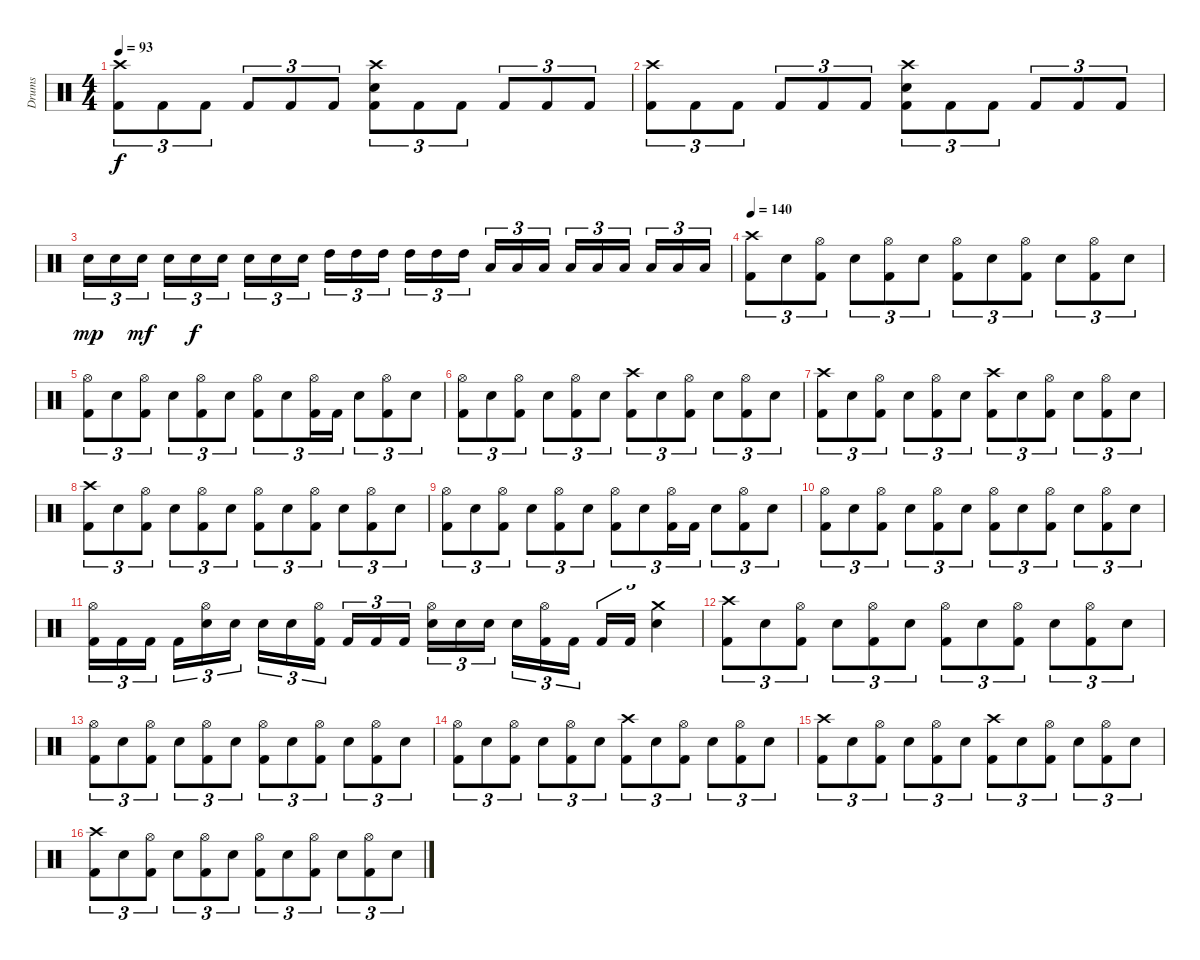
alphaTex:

\track ("Drums" "Drums") {instrument percussion}
\staff {score}
\articulation defaults
\ts (4 4)
\tempo 93
\clef neutral
\ks c
("Crash high (hit)" "Kick (hit) 2").8{tu (3 2) dy f} "Kick (hit) 2".8{tu (3 2)} "Kick (hit) 2".8{tu (3 2)} "Kick (hit) 2".8{tu (3 2)} "Kick (hit) 2".8{tu (3 2)} "Kick (hit) 2".8{tu (3 2)} ("Crash high (hit)" "Electric Snare (hit)" "Kick (hit) 2").8{tu (3 2)} "Kick (hit) 2".8{tu (3 2)} "Kick (hit) 2".8{tu (3 2)} "Kick (hit) 2".8{tu (3 2)} "Kick (hit) 2".8{tu (3 2)} "Kick (hit) 2".8{tu (3 2)} |
("Crash high (hit)" "Kick (hit) 2").8{tu (3 2)} "Kick (hit) 2".8{tu (3 2)} "Kick (hit) 2".8{tu (3 2)} "Kick (hit) 2".8{tu (3 2)} "Kick (hit) 2".8{tu (3 2)} "Kick (hit) 2".8{tu (3 2)} ("Crash high (hit)" "Electric Snare (hit)" "Kick (hit) 2").8{tu (3 2)} "Kick (hit) 2".8{tu (3 2)} "Kick (hit) 2".8{tu (3 2)} "Kick (hit) 2".8{tu (3 2)} "Kick (hit) 2".8{tu (3 2)} "Kick (hit) 2".8{tu (3 2)} |
"Electric Snare (hit)".16{tu (3 2) dy mp} "Electric Snare (hit)".16{tu (3 2)} "Electric Snare (hit)".16{tu (3 2) dy mf} "Electric Snare (hit)".16{tu (3 2)} "Electric Snare (hit)".16{tu (3 2) dy f} "Electric Snare (hit)".16{tu (3 2)} "Electric Snare (hit)".16{tu (3 2)} "Electric Snare (hit)".16{tu (3 2)} "Electric Snare (hit)".16{tu (3 2)} "High Tom (hit)".16{tu (3 2)} "High Tom (hit)".16{tu (3 2)} "High Tom (hit)".16{tu (3 2)} "High Tom (hit)".16{tu (3 2)} "High Tom (hit)".16{tu (3 2)} "High Tom (hit)".16{tu (3 2)} "Low Tom (hit)".16{tu (3 2)} "Low Tom (hit)".16{tu (3 2)} "Low Tom (hit)".16{tu (3 2)} "Low Tom (hit)".16{tu (3 2)} "Low Tom (hit)".16{tu (3 2)} "Low Tom (hit)".16{tu (3 2)} "Low Floor Tom (hit)".16{tu (3 2)} "Low Floor Tom (hit)".16{tu (3 2)} "Low Floor Tom (hit)".16{tu (3 2)} |
\tempo 140
("Crash high (hit)" "Kick (hit) 2").8{tu (3 2)} "Electric Snare (hit)".8{tu (3 2)} ("Hi-Hat (open)" "Kick (hit) 2").8{tu (3 2)} "Electric Snare (hit)".8{tu (3 2)} ("Hi-Hat (open)" "Kick (hit) 2").8{tu (3 2)} "Electric Snare (hit)".8{tu (3 2)} ("Hi-Hat (open)" "Kick (hit) 2").8{tu (3 2)} "Electric Snare (hit)".8{tu (3 2)} ("Hi-Hat (open)" "Kick (hit) 2").8{tu (3 2)} "Electric Snare (hit)".8{tu (3 2)} ("Hi-Hat (open)" "Kick (hit) 2").8{tu (3 2)} "Electric Snare (hit)".8{tu (3 2)} |
("Hi-Hat (open)" "Kick (hit) 2").8{tu (3 2)} "Electric Snare (hit)".8{tu (3 2)} ("Hi-Hat (open)" "Kick (hit) 2").8{tu (3 2)} "Electric Snare (hit)".8{tu (3 2)} ("Hi-Hat (open)" "Kick (hit) 2").8{tu (3 2)} "Electric Snare (hit)".8{tu (3 2)} ("Hi-Hat (open)" "Kick (hit) 2").8{tu (3 2)} "Electric Snare (hit)".8{tu (3 2)} ("Hi-Hat (open)" "Kick (hit) 2").16{tu (3 2)} "Kick (hit) 2".16{tu (3 2)} "Electric Snare (hit)".8{tu (3 2)} ("Hi-Hat (open)" "Kick (hit) 2").8{tu (3 2)} "Electric Snare (hit)".8{tu (3 2)} |
("Hi-Hat (open)" "Kick (hit) 2").8{tu (3 2)} "Electric Snare (hit)".8{tu (3 2)} ("Hi-Hat (open)" "Kick (hit) 2").8{tu (3 2)} "Electric Snare (hit)".8{tu (3 2)} ("Hi-Hat (open)" "Kick (hit) 2").8{tu (3 2)} "Electric Snare (hit)".8{tu (3 2)} ("Crash high (hit)" "Kick (hit) 2").8{tu (3 2)} "Electric Snare (hit)".8{tu (3 2)} ("Hi-Hat (open)" "Kick (hit) 2").8{tu (3 2)} "Electric Snare (hit)".8{tu (3 2)} ("Hi-Hat (open)" "Kick (hit) 2").8{tu (3 2)} "Electric Snare (hit)".8{tu (3 2)} |
("Crash high (hit)" "Kick (hit) 2").8{tu (3 2)} "Electric Snare (hit)".8{tu (3 2)} ("Hi-Hat (open)" "Kick (hit) 2").8{tu (3 2)} "Electric Snare (hit)".8{tu (3 2)} ("Hi-Hat (open)" "Kick (hit) 2").8{tu (3 2)} "Electric Snare (hit)".8{tu (3 2)} ("Crash high (hit)" "Kick (hit) 2").8{tu (3 2)} "Electric Snare (hit)".8{tu (3 2)} ("Hi-Hat (open)" "Kick (hit) 2").8{tu (3 2)} "Electric Snare (hit)".8{tu (3 2)} ("Hi-Hat (open)" "Kick (hit) 2").8{tu (3 2)} "Electric Snare (hit)".8{tu (3 2)} |
("Crash high (hit)" "Kick (hit) 2").8{tu (3 2)} "Electric Snare (hit)".8{tu (3 2)} ("Hi-Hat (open)" "Kick (hit) 2").8{tu (3 2)} "Electric Snare (hit)".8{tu (3 2)} ("Hi-Hat (open)" "Kick (hit) 2").8{tu (3 2)} "Electric Snare (hit)".8{tu (3 2)} ("Hi-Hat (open)" "Kick (hit) 2").8{tu (3 2)} "Electric Snare (hit)".8{tu (3 2)} ("Hi-Hat (open)" "Kick (hit) 2").8{tu (3 2)} "Electric Snare (hit)".8{tu (3 2)} ("Hi-Hat (open)" "Kick (hit) 2").8{tu (3 2)} "Electric Snare (hit)".8{tu (3 2)} |
("Hi-Hat (open)" "Kick (hit) 2").8{tu (3 2)} "Electric Snare (hit)".8{tu (3 2)} ("Hi-Hat (open)" "Kick (hit) 2").8{tu (3 2)} "Electric Snare (hit)".8{tu (3 2)} ("Hi-Hat (open)" "Kick (hit) 2").8{tu (3 2)} "Electric Snare (hit)".8{tu (3 2)} ("Hi-Hat (open)" "Kick (hit) 2").8{tu (3 2)} "Electric Snare (hit)".8{tu (3 2)} ("Hi-Hat (open)" "Kick (hit) 2").16{tu (3 2)} "Kick (hit) 2".16{tu (3 2)} "Electric Snare (hit)".8{tu (3 2)} ("Hi-Hat (open)" "Kick (hit) 2").8{tu (3 2)} "Electric Snare (hit)".8{tu (3 2)} |
("Hi-Hat (open)" "Kick (hit) 2").8{tu (3 2)} "Electric Snare (hit)".8{tu (3 2)} ("Hi-Hat (open)" "Kick (hit) 2").8{tu (3 2)} "Electric Snare (hit)".8{tu (3 2)} ("Hi-Hat (open)" "Kick (hit) 2").8{tu (3 2)} "Electric Snare (hit)".8{tu (3 2)} ("Hi-Hat (open)" "Kick (hit) 2").8{tu (3 2)} "Electric Snare (hit)".8{tu (3 2)} ("Hi-Hat (open)" "Kick (hit) 2").8{tu (3 2)} "Electric Snare (hit)".8{tu (3 2)} ("Hi-Hat (open)" "Kick (hit) 2").8{tu (3 2)} "Electric Snare (hit)".8{tu (3 2)} |
("Hi-Hat (open)" "Kick (hit) 2").16{tu (3 2)} "Kick (hit) 2".16{tu (3 2)} "Kick (hit) 2".16{tu (3 2)} "Kick (hit) 2".16{tu (3 2)} ("Hi-Hat (open)" "Electric Snare (hit)").16{tu (3 2)} "Electric Snare (hit)".16{tu (3 2)} "Electric Snare (hit)".16{tu (3 2)} "Electric Snare (hit)".16{tu (3 2)} ("Hi-Hat (open)" "Kick (hit) 2").16{tu (3 2)} "Kick (hit) 2".16{tu (3 2)} "Kick (hit) 2".16{tu (3 2)} "Kick (hit) 2".16{tu (3 2)} ("Hi-Hat (open)" "Electric Snare (hit)").16{tu (3 2)} "Electric Snare (hit)".16{tu (3 2)} "Electric Snare (hit)".16{tu (3 2)} "Electric Snare (hit)".16{tu (3 2)} ("Hi-Hat (open)" "Kick (hit) 2").16{tu (3 2)} "Kick (hit) 2".16{tu (3 2)} "Kick (hit) 2".16{tu (3 2)} "Kick (hit) 2".16{tu (3 2)} ("Crash medium (hit)" "Electric Snare (hit)").4{tu (3 2)} |
("Crash high (hit)" "Kick (hit) 2").8{tu (3 2)} "Electric Snare (hit)".8{tu (3 2)} ("Hi-Hat (open)" "Kick (hit) 2").8{tu (3 2)} "Electric Snare (hit)".8{tu (3 2)} ("Hi-Hat (open)" "Kick (hit) 2").8{tu (3 2)} "Electric Snare (hit)".8{tu (3 2)} ("Hi-Hat (open)" "Kick (hit) 2").8{tu (3 2)} "Electric Snare (hit)".8{tu (3 2)} ("Hi-Hat (open)" "Kick (hit) 2").8{tu (3 2)} "Electric Snare (hit)".8{tu (3 2)} ("Hi-Hat (open)" "Kick (hit) 2").8{tu (3 2)} "Electric Snare (hit)".8{tu (3 2)} |
("Hi-Hat (open)" "Kick (hit) 2").8{tu (3 2)} "Electric Snare (hit)".8{tu (3 2)} ("Hi-Hat (open)" "Kick (hit) 2").8{tu (3 2)} "Electric Snare (hit)".8{tu (3 2)} ("Hi-Hat (open)" "Kick (hit) 2").8{tu (3 2)} "Electric Snare (hit)".8{tu (3 2)} ("Hi-Hat (open)" "Kick (hit) 2").8{tu (3 2)} "Electric Snare (hit)".8{tu (3 2)} ("Hi-Hat (open)" "Kick (hit) 2").8{tu (3 2)} "Electric Snare (hit)".8{tu (3 2)} ("Hi-Hat (open)" "Kick (hit) 2").8{tu (3 2)} "Electric Snare (hit)".8{tu (3 2)} |
("Hi-Hat (open)" "Kick (hit) 2").8{tu (3 2)} "Electric Snare (hit)".8{tu (3 2)} ("Hi-Hat (open)" "Kick (hit) 2").8{tu (3 2)} "Electric Snare (hit)".8{tu (3 2)} ("Hi-Hat (open)" "Kick (hit) 2").8{tu (3 2)} "Electric Snare (hit)".8{tu (3 2)} ("Crash high (hit)" "Kick (hit) 2").8{tu (3 2)} "Electric Snare (hit)".8{tu (3 2)} ("Hi-Hat (open)" "Kick (hit) 2").8{tu (3 2)} "Electric Snare (hit)".8{tu (3 2)} ("Hi-Hat (open)" "Kick (hit) 2").8{tu (3 2)} "Electric Snare (hit)".8{tu (3 2)} |
("Crash high (hit)" "Kick (hit) 2").8{tu (3 2)} "Electric Snare (hit)".8{tu (3 2)} ("Hi-Hat (open)" "Kick (hit) 2").8{tu (3 2)} "Electric Snare (hit)".8{tu (3 2)} ("Hi-Hat (open)" "Kick (hit) 2").8{tu (3 2)} "Electric Snare (hit)".8{tu (3 2)} ("Crash high (hit)" "Kick (hit) 2").8{tu (3 2)} "Electric Snare (hit)".8{tu (3 2)} ("Hi-Hat (open)" "Kick (hit) 2").8{tu (3 2)} "Electric Snare (hit)".8{tu (3 2)} ("Hi-Hat (open)" "Kick (hit) 2").8{tu (3 2)} "Electric Snare (hit)".8{tu (3 2)} |
("Crash high (hit)" "Kick (hit) 2").8{tu (3 2)} "Electric Snare (hit)".8{tu (3 2)} ("Hi-Hat (open)" "Kick (hit) 2").8{tu (3 2)} "Electric Snare (hit)".8{tu (3 2)} ("Hi-Hat (open)" "Kick (hit) 2").8{tu (3 2)} "Electric Snare (hit)".8{tu (3 2)} ("Hi-Hat (open)" "Kick (hit) 2").8{tu (3 2)} "Electric Snare (hit)".8{tu (3 2)} ("Hi-Hat (open)" "Kick (hit) 2").8{tu (3 2)} "Electric Snare (hit)".8{tu (3 2)} ("Hi-Hat (open)" "Kick (hit) 2").8{tu (3 2)} "Electric Snare (hit)".8{tu (3 2)}
